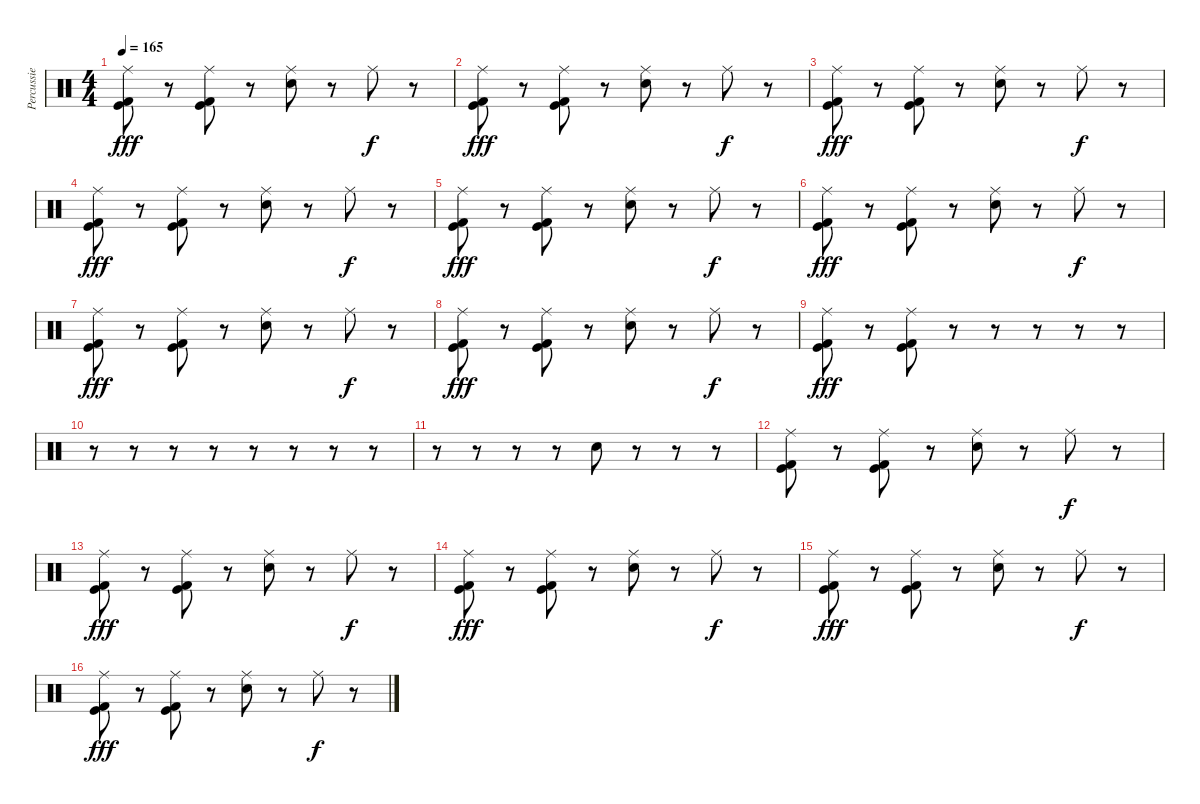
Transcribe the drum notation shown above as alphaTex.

\track ("Percussie" "Percussie") {instrument percussion}
\staff {score}
\articulation defaults
\ts (4 4)
\tempo 165
\clef neutral
\ks c
("Ride (middle)" "Kick (hit)" "Kick (hit) 2").8{dy fff} r.8 ("Ride (middle)" "Kick (hit)" "Kick (hit) 2").8 r.8 ("Ride (middle)" "Snare (hit) 2").8 r.8 "Ride (middle)".8{dy f} r.8 |
("Ride (middle)" "Kick (hit)" "Kick (hit) 2").8{dy fff} r.8 ("Ride (middle)" "Kick (hit)" "Kick (hit) 2").8 r.8 ("Ride (middle)" "Snare (hit) 2").8 r.8 "Ride (middle)".8{dy f} r.8 |
("Ride (middle)" "Kick (hit)" "Kick (hit) 2").8{dy fff} r.8 ("Ride (middle)" "Kick (hit)" "Kick (hit) 2").8 r.8 ("Ride (middle)" "Snare (hit) 2").8 r.8 "Ride (middle)".8{dy f} r.8 |
("Ride (middle)" "Kick (hit)" "Kick (hit) 2").8{dy fff} r.8 ("Ride (middle)" "Kick (hit)" "Kick (hit) 2").8 r.8 ("Ride (middle)" "Snare (hit) 2").8 r.8 "Ride (middle)".8{dy f} r.8 |
("Ride (middle)" "Kick (hit)" "Kick (hit) 2").8{dy fff} r.8 ("Ride (middle)" "Kick (hit)" "Kick (hit) 2").8 r.8 ("Ride (middle)" "Snare (hit) 2").8 r.8 "Ride (middle)".8{dy f} r.8 |
("Ride (middle)" "Kick (hit)" "Kick (hit) 2").8{dy fff} r.8 ("Ride (middle)" "Kick (hit)" "Kick (hit) 2").8 r.8 ("Ride (middle)" "Snare (hit) 2").8 r.8 "Ride (middle)".8{dy f} r.8 |
("Ride (middle)" "Kick (hit)" "Kick (hit) 2").8{dy fff} r.8 ("Ride (middle)" "Kick (hit)" "Kick (hit) 2").8 r.8 ("Ride (middle)" "Snare (hit) 2").8 r.8 "Ride (middle)".8{dy f} r.8 |
("Ride (middle)" "Kick (hit)" "Kick (hit) 2").8{dy fff} r.8 ("Ride (middle)" "Kick (hit)" "Kick (hit) 2").8 r.8 ("Ride (middle)" "Snare (hit) 2").8 r.8 "Ride (middle)".8{dy f} r.8 |
("Ride (middle)" "Kick (hit)" "Kick (hit) 2").8{dy fff} r.8 ("Ride (middle)" "Kick (hit)" "Kick (hit) 2").8 r.8 r.8 r.8 r.8 r.8 |
r.8 r.8 r.8 r.8 r.8 r.8 r.8 r.8 |
r.8 r.8 r.8 r.8 "Snare (hit) 2".8 r.8 r.8 r.8 |
("Ride (middle)" "Kick (hit)" "Kick (hit) 2").8 r.8 ("Ride (middle)" "Kick (hit)" "Kick (hit) 2").8 r.8 ("Ride (middle)" "Snare (hit) 2").8 r.8 "Ride (middle)".8{dy f} r.8 |
("Ride (middle)" "Kick (hit)" "Kick (hit) 2").8{dy fff} r.8 ("Ride (middle)" "Kick (hit)" "Kick (hit) 2").8 r.8 ("Ride (middle)" "Snare (hit) 2").8 r.8 "Ride (middle)".8{dy f} r.8 |
("Ride (middle)" "Kick (hit)" "Kick (hit) 2").8{dy fff} r.8 ("Ride (middle)" "Kick (hit)" "Kick (hit) 2").8 r.8 ("Ride (middle)" "Snare (hit) 2").8 r.8 "Ride (middle)".8{dy f} r.8 |
("Ride (middle)" "Kick (hit)" "Kick (hit) 2").8{dy fff} r.8 ("Ride (middle)" "Kick (hit)" "Kick (hit) 2").8 r.8 ("Ride (middle)" "Snare (hit) 2").8 r.8 "Ride (middle)".8{dy f} r.8 |
("Ride (middle)" "Kick (hit)" "Kick (hit) 2").8{dy fff} r.8 ("Ride (middle)" "Kick (hit)" "Kick (hit) 2").8 r.8 ("Ride (middle)" "Snare (hit) 2").8 r.8 "Ride (middle)".8{dy f} r.8
